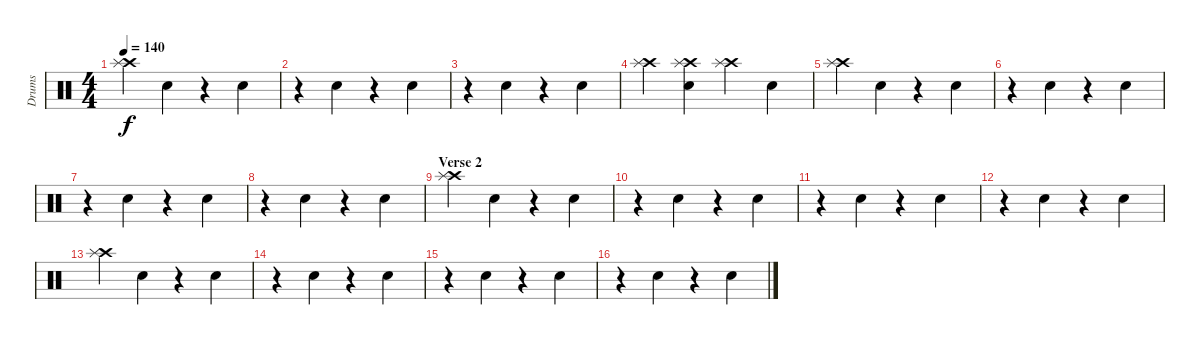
\track ("Drums" "Drums") {instrument percussion}
\staff {score}
\articulation defaults
\ts (4 4)
\tempo 140
\clef neutral
\ks c
("Crash high (hit)" "Splash (hit)").4{dy f} "Snare (hit) 2".4 r.4 "Snare (hit) 2".4 |
r.4 "Snare (hit) 2".4 r.4 "Snare (hit) 2".4 |
r.4 "Snare (hit) 2".4 r.4 "Snare (hit) 2".4 |
("Crash high (hit)" "Splash (hit)").4 ("Snare (hit) 2" "Crash high (hit)" "Splash (hit)").4 ("Crash high (hit)" "Splash (hit)").4 "Snare (hit) 2".4 |
("Crash high (hit)" "Splash (hit)").4 "Snare (hit) 2".4 r.4 "Snare (hit) 2".4 |
r.4 "Snare (hit) 2".4 r.4 "Snare (hit) 2".4 |
r.4 "Snare (hit) 2".4 r.4 "Snare (hit) 2".4 |
r.4 "Snare (hit) 2".4 r.4 "Snare (hit) 2".4 |
\section ("" "Verse 2")
("Crash high (hit)" "Splash (hit)").4 "Snare (hit) 2".4 r.4 "Snare (hit) 2".4 |
r.4 "Snare (hit) 2".4 r.4 "Snare (hit) 2".4 |
r.4 "Snare (hit) 2".4 r.4 "Snare (hit) 2".4 |
r.4 "Snare (hit) 2".4 r.4 "Snare (hit) 2".4 |
("Crash high (hit)" "Splash (hit)").4 "Snare (hit) 2".4 r.4 "Snare (hit) 2".4 |
r.4 "Snare (hit) 2".4 r.4 "Snare (hit) 2".4 |
r.4 "Snare (hit) 2".4 r.4 "Snare (hit) 2".4 |
r.4 "Snare (hit) 2".4 r.4 "Snare (hit) 2".4
